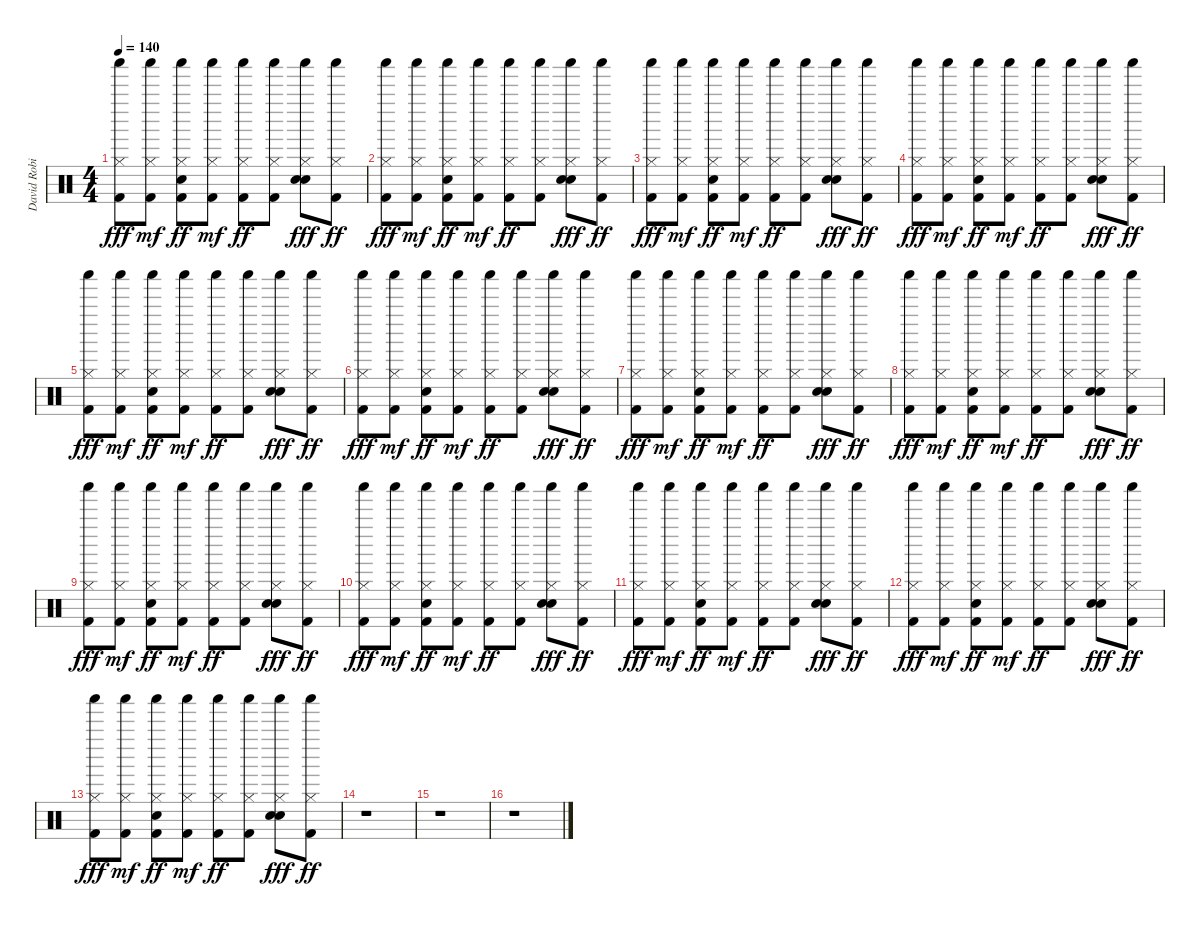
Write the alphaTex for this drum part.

\track ("David Robinson" "David Robi") {instrument percussion}
\staff {score}
\articulation defaults
\ts (4 4)
\tempo 140
\clef neutral
\ks c
("Shaker (hit)" "Hi-Hat (closed)" "Kick (hit) 2").8{dy fff} ("Shaker (hit)" "Hi-Hat (closed)" "Kick (hit) 2").8{dy mf} ("Shaker (hit)" "Hi-Hat (closed)" "Electric Snare (hit)" "Kick (hit) 2").8{dy ff} ("Shaker (hit)" "Hi-Hat (closed)" "Kick (hit) 2").8{dy mf} ("Shaker (hit)" "Hi-Hat (closed)" "Kick (hit) 2").8{dy ff} ("Shaker (hit)" "Hi-Hat (closed)" "Kick (hit) 2").8 ("Shaker (hit)" "Hi-Hat (closed)" "Electric Snare (hit)" "Snare (hit) 2").8{dy fff} ("Shaker (hit)" "Hi-Hat (closed)" "Kick (hit) 2").8{dy ff} |
("Shaker (hit)" "Hi-Hat (closed)" "Kick (hit) 2").8{dy fff} ("Shaker (hit)" "Hi-Hat (closed)" "Kick (hit) 2").8{dy mf} ("Shaker (hit)" "Hi-Hat (closed)" "Electric Snare (hit)" "Kick (hit) 2").8{dy ff} ("Shaker (hit)" "Hi-Hat (closed)" "Kick (hit) 2").8{dy mf} ("Shaker (hit)" "Hi-Hat (closed)" "Kick (hit) 2").8{dy ff} ("Shaker (hit)" "Hi-Hat (closed)" "Kick (hit) 2").8 ("Shaker (hit)" "Hi-Hat (closed)" "Electric Snare (hit)" "Snare (hit) 2").8{dy fff} ("Shaker (hit)" "Hi-Hat (closed)" "Kick (hit) 2").8{dy ff} |
("Shaker (hit)" "Hi-Hat (closed)" "Kick (hit) 2").8{dy fff} ("Shaker (hit)" "Hi-Hat (closed)" "Kick (hit) 2").8{dy mf} ("Shaker (hit)" "Hi-Hat (closed)" "Electric Snare (hit)" "Kick (hit) 2").8{dy ff} ("Shaker (hit)" "Hi-Hat (closed)" "Kick (hit) 2").8{dy mf} ("Shaker (hit)" "Hi-Hat (closed)" "Kick (hit) 2").8{dy ff} ("Shaker (hit)" "Hi-Hat (closed)" "Kick (hit) 2").8 ("Shaker (hit)" "Hi-Hat (closed)" "Electric Snare (hit)" "Snare (hit) 2").8{dy fff} ("Shaker (hit)" "Hi-Hat (closed)" "Kick (hit) 2").8{dy ff} |
("Shaker (hit)" "Hi-Hat (closed)" "Kick (hit) 2").8{dy fff} ("Shaker (hit)" "Hi-Hat (closed)" "Kick (hit) 2").8{dy mf} ("Shaker (hit)" "Hi-Hat (closed)" "Electric Snare (hit)" "Kick (hit) 2").8{dy ff} ("Shaker (hit)" "Hi-Hat (closed)" "Kick (hit) 2").8{dy mf} ("Shaker (hit)" "Hi-Hat (closed)" "Kick (hit) 2").8{dy ff} ("Shaker (hit)" "Hi-Hat (closed)" "Kick (hit) 2").8 ("Shaker (hit)" "Hi-Hat (closed)" "Electric Snare (hit)" "Snare (hit) 2").8{dy fff} ("Shaker (hit)" "Hi-Hat (closed)" "Kick (hit) 2").8{dy ff} |
("Shaker (hit)" "Hi-Hat (closed)" "Kick (hit) 2").8{dy fff} ("Shaker (hit)" "Hi-Hat (closed)" "Kick (hit) 2").8{dy mf} ("Shaker (hit)" "Hi-Hat (closed)" "Electric Snare (hit)" "Kick (hit) 2").8{dy ff} ("Shaker (hit)" "Hi-Hat (closed)" "Kick (hit) 2").8{dy mf} ("Shaker (hit)" "Hi-Hat (closed)" "Kick (hit) 2").8{dy ff} ("Shaker (hit)" "Hi-Hat (closed)" "Kick (hit) 2").8 ("Shaker (hit)" "Hi-Hat (closed)" "Electric Snare (hit)" "Snare (hit) 2").8{dy fff} ("Shaker (hit)" "Hi-Hat (closed)" "Kick (hit) 2").8{dy ff} |
("Shaker (hit)" "Hi-Hat (closed)" "Kick (hit) 2").8{dy fff} ("Shaker (hit)" "Hi-Hat (closed)" "Kick (hit) 2").8{dy mf} ("Shaker (hit)" "Hi-Hat (closed)" "Electric Snare (hit)" "Kick (hit) 2").8{dy ff} ("Shaker (hit)" "Hi-Hat (closed)" "Kick (hit) 2").8{dy mf} ("Shaker (hit)" "Hi-Hat (closed)" "Kick (hit) 2").8{dy ff} ("Shaker (hit)" "Hi-Hat (closed)" "Kick (hit) 2").8 ("Shaker (hit)" "Hi-Hat (closed)" "Electric Snare (hit)" "Snare (hit) 2").8{dy fff} ("Shaker (hit)" "Hi-Hat (closed)" "Kick (hit) 2").8{dy ff} |
("Shaker (hit)" "Hi-Hat (closed)" "Kick (hit) 2").8{dy fff} ("Shaker (hit)" "Hi-Hat (closed)" "Kick (hit) 2").8{dy mf} ("Shaker (hit)" "Hi-Hat (closed)" "Electric Snare (hit)" "Kick (hit) 2").8{dy ff} ("Shaker (hit)" "Hi-Hat (closed)" "Kick (hit) 2").8{dy mf} ("Shaker (hit)" "Hi-Hat (closed)" "Kick (hit) 2").8{dy ff} ("Shaker (hit)" "Hi-Hat (closed)" "Kick (hit) 2").8 ("Shaker (hit)" "Hi-Hat (closed)" "Electric Snare (hit)" "Snare (hit) 2").8{dy fff} ("Shaker (hit)" "Hi-Hat (closed)" "Kick (hit) 2").8{dy ff} |
("Shaker (hit)" "Hi-Hat (closed)" "Kick (hit) 2").8{dy fff} ("Shaker (hit)" "Hi-Hat (closed)" "Kick (hit) 2").8{dy mf} ("Shaker (hit)" "Hi-Hat (closed)" "Electric Snare (hit)" "Kick (hit) 2").8{dy ff} ("Shaker (hit)" "Hi-Hat (closed)" "Kick (hit) 2").8{dy mf} ("Shaker (hit)" "Hi-Hat (closed)" "Kick (hit) 2").8{dy ff} ("Shaker (hit)" "Hi-Hat (closed)" "Kick (hit) 2").8 ("Shaker (hit)" "Hi-Hat (closed)" "Electric Snare (hit)" "Snare (hit) 2").8{dy fff} ("Shaker (hit)" "Hi-Hat (closed)" "Kick (hit) 2").8{dy ff} |
("Shaker (hit)" "Hi-Hat (closed)" "Kick (hit) 2").8{dy fff} ("Shaker (hit)" "Hi-Hat (closed)" "Kick (hit) 2").8{dy mf} ("Shaker (hit)" "Hi-Hat (closed)" "Electric Snare (hit)" "Kick (hit) 2").8{dy ff} ("Shaker (hit)" "Hi-Hat (closed)" "Kick (hit) 2").8{dy mf} ("Shaker (hit)" "Hi-Hat (closed)" "Kick (hit) 2").8{dy ff} ("Shaker (hit)" "Hi-Hat (closed)" "Kick (hit) 2").8 ("Shaker (hit)" "Hi-Hat (closed)" "Electric Snare (hit)" "Snare (hit) 2").8{dy fff} ("Shaker (hit)" "Hi-Hat (closed)" "Kick (hit) 2").8{dy ff} |
("Shaker (hit)" "Hi-Hat (closed)" "Kick (hit) 2").8{dy fff} ("Shaker (hit)" "Hi-Hat (closed)" "Kick (hit) 2").8{dy mf} ("Shaker (hit)" "Hi-Hat (closed)" "Electric Snare (hit)" "Kick (hit) 2").8{dy ff} ("Shaker (hit)" "Hi-Hat (closed)" "Kick (hit) 2").8{dy mf} ("Shaker (hit)" "Hi-Hat (closed)" "Kick (hit) 2").8{dy ff} ("Shaker (hit)" "Hi-Hat (closed)" "Kick (hit) 2").8 ("Shaker (hit)" "Hi-Hat (closed)" "Electric Snare (hit)" "Snare (hit) 2").8{dy fff} ("Shaker (hit)" "Hi-Hat (closed)" "Kick (hit) 2").8{dy ff} |
("Shaker (hit)" "Hi-Hat (closed)" "Kick (hit) 2").8{dy fff} ("Shaker (hit)" "Hi-Hat (closed)" "Kick (hit) 2").8{dy mf} ("Shaker (hit)" "Hi-Hat (closed)" "Electric Snare (hit)" "Kick (hit) 2").8{dy ff} ("Shaker (hit)" "Hi-Hat (closed)" "Kick (hit) 2").8{dy mf} ("Shaker (hit)" "Hi-Hat (closed)" "Kick (hit) 2").8{dy ff} ("Shaker (hit)" "Hi-Hat (closed)" "Kick (hit) 2").8 ("Shaker (hit)" "Hi-Hat (closed)" "Electric Snare (hit)" "Snare (hit) 2").8{dy fff} ("Shaker (hit)" "Hi-Hat (closed)" "Kick (hit) 2").8{dy ff} |
("Shaker (hit)" "Hi-Hat (closed)" "Kick (hit) 2").8{dy fff} ("Shaker (hit)" "Hi-Hat (closed)" "Kick (hit) 2").8{dy mf} ("Shaker (hit)" "Hi-Hat (closed)" "Electric Snare (hit)" "Kick (hit) 2").8{dy ff} ("Shaker (hit)" "Hi-Hat (closed)" "Kick (hit) 2").8{dy mf} ("Shaker (hit)" "Hi-Hat (closed)" "Kick (hit) 2").8{dy ff} ("Shaker (hit)" "Hi-Hat (closed)" "Kick (hit) 2").8 ("Shaker (hit)" "Hi-Hat (closed)" "Electric Snare (hit)" "Snare (hit) 2").8{dy fff} ("Shaker (hit)" "Hi-Hat (closed)" "Kick (hit) 2").8{dy ff} |
("Shaker (hit)" "Hi-Hat (closed)" "Kick (hit) 2").8{dy fff} ("Shaker (hit)" "Hi-Hat (closed)" "Kick (hit) 2").8{dy mf} ("Shaker (hit)" "Hi-Hat (closed)" "Electric Snare (hit)" "Kick (hit) 2").8{dy ff} ("Shaker (hit)" "Hi-Hat (closed)" "Kick (hit) 2").8{dy mf} ("Shaker (hit)" "Hi-Hat (closed)" "Kick (hit) 2").8{dy ff} ("Shaker (hit)" "Hi-Hat (closed)" "Kick (hit) 2").8 ("Shaker (hit)" "Hi-Hat (closed)" "Electric Snare (hit)" "Snare (hit) 2").8{dy fff} ("Shaker (hit)" "Hi-Hat (closed)" "Kick (hit) 2").8{dy ff} |
r.1 |
r.1 |
r.1
